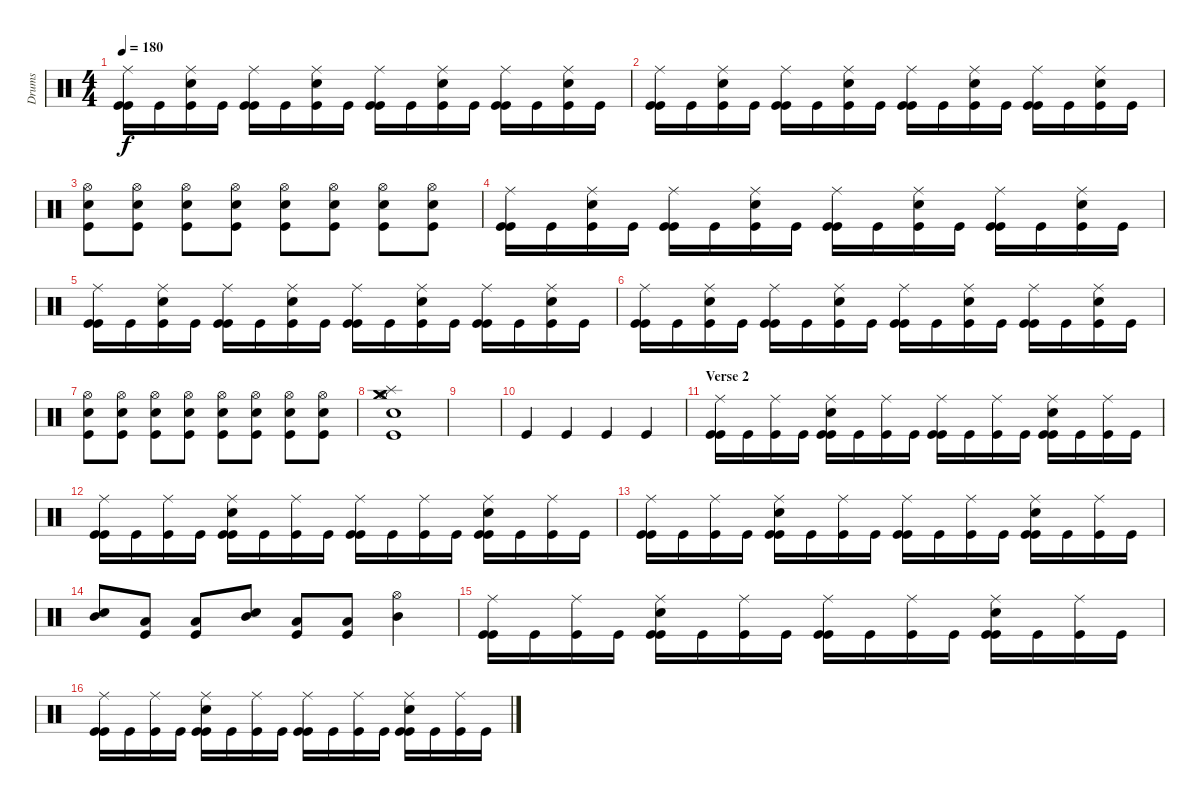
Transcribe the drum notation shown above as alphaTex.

\track ("Drums" "Drums") {instrument percussion}
\staff {score}
\articulation defaults
\ts (4 4)
\tempo 180
\clef neutral
\ks c
("Ride (middle)" "Kick (hit)" "Kick (hit)").16{dy f} "Kick (hit)".16 ("Ride (middle)" "Electric Snare (hit)" "Kick (hit)").16 "Kick (hit)".16 ("Ride (middle)" "Kick (hit)" "Kick (hit)").16 "Kick (hit)".16 ("Ride (middle)" "Electric Snare (hit)" "Kick (hit)").16 "Kick (hit)".16 ("Ride (middle)" "Kick (hit)" "Kick (hit)").16 "Kick (hit)".16 ("Ride (middle)" "Electric Snare (hit)" "Kick (hit)").16 "Kick (hit)".16 ("Ride (middle)" "Kick (hit)" "Kick (hit)").16 "Kick (hit)".16 ("Ride (middle)" "Electric Snare (hit)" "Kick (hit)").16 "Kick (hit)".16 |
("Ride (middle)" "Kick (hit)" "Kick (hit)").16 "Kick (hit)".16 ("Ride (middle)" "Electric Snare (hit)" "Kick (hit)").16 "Kick (hit)".16 ("Ride (middle)" "Kick (hit)" "Kick (hit)").16 "Kick (hit)".16 ("Ride (middle)" "Electric Snare (hit)" "Kick (hit)").16 "Kick (hit)".16 ("Ride (middle)" "Kick (hit)" "Kick (hit)").16 "Kick (hit)".16 ("Ride (middle)" "Electric Snare (hit)" "Kick (hit)").16 "Kick (hit)".16 ("Ride (middle)" "Kick (hit)" "Kick (hit)").16 "Kick (hit)".16 ("Ride (middle)" "Electric Snare (hit)" "Kick (hit)").16 "Kick (hit)".16 |
("Hi-Hat (open)" "Electric Snare (hit)" "Kick (hit)").8 ("Hi-Hat (open)" "Electric Snare (hit)" "Kick (hit)").8 ("Hi-Hat (open)" "Electric Snare (hit)" "Kick (hit)").8 ("Hi-Hat (open)" "Electric Snare (hit)" "Kick (hit)").8 ("Hi-Hat (open)" "Electric Snare (hit)" "Kick (hit)").8 ("Hi-Hat (open)" "Electric Snare (hit)" "Kick (hit)").8 ("Hi-Hat (open)" "Electric Snare (hit)" "Kick (hit)").8 ("Hi-Hat (open)" "Electric Snare (hit)" "Kick (hit)").8 |
("Ride (middle)" "Kick (hit)" "Kick (hit)").16 "Kick (hit)".16 ("Ride (middle)" "Electric Snare (hit)" "Kick (hit)").16 "Kick (hit)".16 ("Ride (middle)" "Kick (hit)" "Kick (hit)").16 "Kick (hit)".16 ("Ride (middle)" "Electric Snare (hit)" "Kick (hit)").16 "Kick (hit)".16 ("Ride (middle)" "Kick (hit)" "Kick (hit)").16 "Kick (hit)".16 ("Ride (middle)" "Electric Snare (hit)" "Kick (hit)").16 "Kick (hit)".16 ("Ride (middle)" "Kick (hit)" "Kick (hit)").16 "Kick (hit)".16 ("Ride (middle)" "Electric Snare (hit)" "Kick (hit)").16 "Kick (hit)".16 |
("Ride (middle)" "Kick (hit)" "Kick (hit)").16 "Kick (hit)".16 ("Ride (middle)" "Electric Snare (hit)" "Kick (hit)").16 "Kick (hit)".16 ("Ride (middle)" "Kick (hit)" "Kick (hit)").16 "Kick (hit)".16 ("Ride (middle)" "Electric Snare (hit)" "Kick (hit)").16 "Kick (hit)".16 ("Ride (middle)" "Kick (hit)" "Kick (hit)").16 "Kick (hit)".16 ("Ride (middle)" "Electric Snare (hit)" "Kick (hit)").16 "Kick (hit)".16 ("Ride (middle)" "Kick (hit)" "Kick (hit)").16 "Kick (hit)".16 ("Ride (middle)" "Electric Snare (hit)" "Kick (hit)").16 "Kick (hit)".16 |
("Ride (middle)" "Kick (hit)" "Kick (hit)").16 "Kick (hit)".16 ("Ride (middle)" "Electric Snare (hit)" "Kick (hit)").16 "Kick (hit)".16 ("Ride (middle)" "Kick (hit)" "Kick (hit)").16 "Kick (hit)".16 ("Ride (middle)" "Electric Snare (hit)" "Kick (hit)").16 "Kick (hit)".16 ("Ride (middle)" "Kick (hit)" "Kick (hit)").16 "Kick (hit)".16 ("Ride (middle)" "Electric Snare (hit)" "Kick (hit)").16 "Kick (hit)".16 ("Ride (middle)" "Kick (hit)" "Kick (hit)").16 "Kick (hit)".16 ("Ride (middle)" "Electric Snare (hit)" "Kick (hit)").16 "Kick (hit)".16 |
("Hi-Hat (open)" "Electric Snare (hit)" "Kick (hit)").8 ("Hi-Hat (open)" "Electric Snare (hit)" "Kick (hit)").8 ("Hi-Hat (open)" "Electric Snare (hit)" "Kick (hit)").8 ("Hi-Hat (open)" "Electric Snare (hit)" "Kick (hit)").8 ("Hi-Hat (open)" "Electric Snare (hit)" "Kick (hit)").8 ("Hi-Hat (open)" "Electric Snare (hit)" "Kick (hit)").8 ("Hi-Hat (open)" "Electric Snare (hit)" "Kick (hit)").8 ("Hi-Hat (open)" "Electric Snare (hit)" "Kick (hit)").8 |
("Splash (hit)" "Hi-Hat (open)" "Crash medium (hit)" "Crash medium (hit)" "Electric Snare (hit)" "Kick (hit)").1 |
|
"Kick (hit)".4 "Kick (hit)".4 "Kick (hit)".4 "Kick (hit)".4 |
\section ("" "Verse 2")
("Ride (middle)" "Kick (hit)" "Kick (hit)").16 "Kick (hit)".16 ("Ride (middle)" "Kick (hit)").16 "Kick (hit)".16 ("Ride (middle)" "Electric Snare (hit)" "Kick (hit)" "Kick (hit)").16 "Kick (hit)".16 ("Ride (middle)" "Kick (hit)").16 "Kick (hit)".16 ("Ride (middle)" "Kick (hit)" "Kick (hit)").16 "Kick (hit)".16 ("Ride (middle)" "Kick (hit)").16 "Kick (hit)".16 ("Ride (middle)" "Electric Snare (hit)" "Kick (hit)" "Kick (hit)").16 "Kick (hit)".16 ("Ride (middle)" "Kick (hit)").16 "Kick (hit)".16 |
("Ride (middle)" "Kick (hit)" "Kick (hit)").16 "Kick (hit)".16 ("Ride (middle)" "Kick (hit)").16 "Kick (hit)".16 ("Ride (middle)" "Electric Snare (hit)" "Kick (hit)" "Kick (hit)").16 "Kick (hit)".16 ("Ride (middle)" "Kick (hit)").16 "Kick (hit)".16 ("Ride (middle)" "Kick (hit)" "Kick (hit)").16 "Kick (hit)".16 ("Ride (middle)" "Kick (hit)").16 "Kick (hit)".16 ("Ride (middle)" "Electric Snare (hit)" "Kick (hit)" "Kick (hit)").16 "Kick (hit)".16 ("Ride (middle)" "Kick (hit)").16 "Kick (hit)".16 |
("Ride (middle)" "Kick (hit)" "Kick (hit)").16 "Kick (hit)".16 ("Ride (middle)" "Kick (hit)").16 "Kick (hit)".16 ("Ride (middle)" "Electric Snare (hit)" "Kick (hit)" "Kick (hit)").16 "Kick (hit)".16 ("Ride (middle)" "Kick (hit)").16 "Kick (hit)".16 ("Ride (middle)" "Kick (hit)" "Kick (hit)").16 "Kick (hit)".16 ("Ride (middle)" "Kick (hit)").16 "Kick (hit)".16 ("Ride (middle)" "Electric Snare (hit)" "Kick (hit)" "Kick (hit)").16 "Kick (hit)".16 ("Ride (middle)" "Kick (hit)").16 "Kick (hit)".16 |
("Electric Snare (hit)" "Mid Tom (hit)").8 ("Low Tom (hit)" "Kick (hit)").8 ("Low Tom (hit)" "Kick (hit)").8 ("Electric Snare (hit)" "Mid Tom (hit)").8 ("Low Tom (hit)" "Kick (hit)").8 ("Low Tom (hit)" "Kick (hit)").8 ("Hi-Hat (open)" "Mid Tom (hit)").4 |
("Ride (middle)" "Kick (hit)" "Kick (hit)").16 "Kick (hit)".16 ("Ride (middle)" "Kick (hit)").16 "Kick (hit)".16 ("Ride (middle)" "Electric Snare (hit)" "Kick (hit)" "Kick (hit)").16 "Kick (hit)".16 ("Ride (middle)" "Kick (hit)").16 "Kick (hit)".16 ("Ride (middle)" "Kick (hit)" "Kick (hit)").16 "Kick (hit)".16 ("Ride (middle)" "Kick (hit)").16 "Kick (hit)".16 ("Ride (middle)" "Electric Snare (hit)" "Kick (hit)" "Kick (hit)").16 "Kick (hit)".16 ("Ride (middle)" "Kick (hit)").16 "Kick (hit)".16 |
("Ride (middle)" "Kick (hit)" "Kick (hit)").16 "Kick (hit)".16 ("Ride (middle)" "Kick (hit)").16 "Kick (hit)".16 ("Ride (middle)" "Electric Snare (hit)" "Kick (hit)" "Kick (hit)").16 "Kick (hit)".16 ("Ride (middle)" "Kick (hit)").16 "Kick (hit)".16 ("Ride (middle)" "Kick (hit)" "Kick (hit)").16 "Kick (hit)".16 ("Ride (middle)" "Kick (hit)").16 "Kick (hit)".16 ("Ride (middle)" "Electric Snare (hit)" "Kick (hit)" "Kick (hit)").16 "Kick (hit)".16 ("Ride (middle)" "Kick (hit)").16 "Kick (hit)".16
